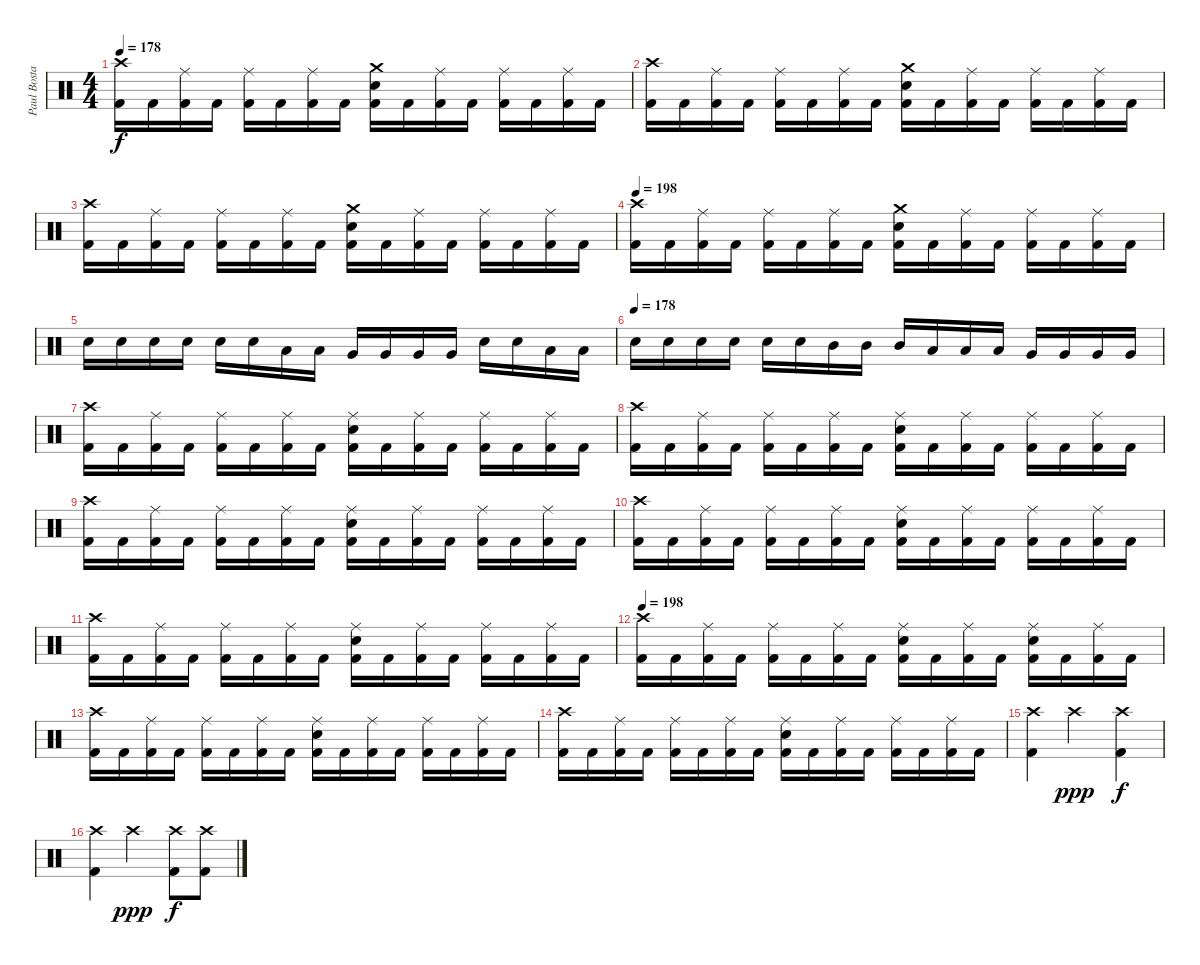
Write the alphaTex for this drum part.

\track ("Paul Bostaph" "Paul Bosta") {instrument percussion}
\staff {score}
\articulation defaults
\ts (4 4)
\tempo 178
\clef neutral
\ks c
("Crash high (hit)" "Kick (hit) 2").16{dy f} "Kick (hit) 2".16 ("Ride (middle)" "Kick (hit) 2").16 "Kick (hit) 2".16 ("Ride (middle)" "Kick (hit) 2").16 "Kick (hit) 2".16 ("Ride (middle)" "Kick (hit) 2").16 "Kick (hit) 2".16 ("Crash medium (hit)" "Electric Snare (hit)" "Kick (hit) 2").16 "Kick (hit) 2".16 ("Ride (middle)" "Kick (hit) 2").16 "Kick (hit) 2".16 ("Ride (middle)" "Kick (hit) 2").16 "Kick (hit) 2".16 ("Ride (middle)" "Kick (hit) 2").16 "Kick (hit) 2".16 |
("Crash high (hit)" "Kick (hit) 2").16 "Kick (hit) 2".16 ("Ride (middle)" "Kick (hit) 2").16 "Kick (hit) 2".16 ("Ride (middle)" "Kick (hit) 2").16 "Kick (hit) 2".16 ("Ride (middle)" "Kick (hit) 2").16 "Kick (hit) 2".16 ("Crash medium (hit)" "Electric Snare (hit)" "Kick (hit) 2").16 "Kick (hit) 2".16 ("Ride (middle)" "Kick (hit) 2").16 "Kick (hit) 2".16 ("Ride (middle)" "Kick (hit) 2").16 "Kick (hit) 2".16 ("Ride (middle)" "Kick (hit) 2").16 "Kick (hit) 2".16 |
("Crash high (hit)" "Kick (hit) 2").16 "Kick (hit) 2".16 ("Ride (middle)" "Kick (hit) 2").16 "Kick (hit) 2".16 ("Ride (middle)" "Kick (hit) 2").16 "Kick (hit) 2".16 ("Ride (middle)" "Kick (hit) 2").16 "Kick (hit) 2".16 ("Crash medium (hit)" "Electric Snare (hit)" "Kick (hit) 2").16 "Kick (hit) 2".16 ("Ride (middle)" "Kick (hit) 2").16 "Kick (hit) 2".16 ("Ride (middle)" "Kick (hit) 2").16 "Kick (hit) 2".16 ("Ride (middle)" "Kick (hit) 2").16 "Kick (hit) 2".16 |
\tempo 198
("Crash high (hit)" "Kick (hit) 2").16 "Kick (hit) 2".16 ("Ride (middle)" "Kick (hit) 2").16 "Kick (hit) 2".16 ("Ride (middle)" "Kick (hit) 2").16 "Kick (hit) 2".16 ("Ride (middle)" "Kick (hit) 2").16 "Kick (hit) 2".16 ("Crash medium (hit)" "Electric Snare (hit)" "Kick (hit) 2").16 "Kick (hit) 2".16 ("Ride (middle)" "Kick (hit) 2").16 "Kick (hit) 2".16 ("Ride (middle)" "Kick (hit) 2").16 "Kick (hit) 2".16 ("Ride (middle)" "Kick (hit) 2").16 "Kick (hit) 2".16 |
"Electric Snare (hit)".16 "Electric Snare (hit)".16 "Electric Snare (hit)".16 "Electric Snare (hit)".16 "Electric Snare (hit)".16 "Electric Snare (hit)".16 "Low Tom (hit)".16 "Low Tom (hit)".16 "Very Low Tom (hit)".16 "Very Low Tom (hit)".16 "Very Low Tom (hit)".16 "Very Low Tom (hit)".16 "Electric Snare (hit)".16 "Electric Snare (hit)".16 "Low Tom (hit)".16 "Low Tom (hit)".16 |
\tempo (178)
"Electric Snare (hit)".16 "Electric Snare (hit)".16 "Electric Snare (hit)".16 "Electric Snare (hit)".16 "Electric Snare (hit)".16 "Electric Snare (hit)".16 "Mid Tom (hit)".16 "Mid Tom (hit)".16 "Mid Tom (hit)".16 "Low Tom (hit)".16 "Low Tom (hit)".16 "Low Tom (hit)".16 "Very Low Tom (hit)".16 "Very Low Tom (hit)".16 "Very Low Tom (hit)".16 "Very Low Tom (hit)".16 |
("Crash high (hit)" "Kick (hit) 2").16 "Kick (hit) 2".16 ("Ride (middle)" "Kick (hit) 2").16 "Kick (hit) 2".16 ("Ride (middle)" "Kick (hit) 2").16 "Kick (hit) 2".16 ("Ride (middle)" "Kick (hit) 2").16 "Kick (hit) 2".16 ("Electric Snare (hit)" "Ride (middle)" "Kick (hit) 2").16 "Kick (hit) 2".16 ("Ride (middle)" "Kick (hit) 2").16 "Kick (hit) 2".16 ("Ride (middle)" "Kick (hit) 2").16 "Kick (hit) 2".16 ("Ride (middle)" "Kick (hit) 2").16 "Kick (hit) 2".16 |
("Crash high (hit)" "Kick (hit) 2").16 "Kick (hit) 2".16 ("Ride (middle)" "Kick (hit) 2").16 "Kick (hit) 2".16 ("Ride (middle)" "Kick (hit) 2").16 "Kick (hit) 2".16 ("Ride (middle)" "Kick (hit) 2").16 "Kick (hit) 2".16 ("Electric Snare (hit)" "Ride (middle)" "Kick (hit) 2").16 "Kick (hit) 2".16 ("Ride (middle)" "Kick (hit) 2").16 "Kick (hit) 2".16 ("Ride (middle)" "Kick (hit) 2").16 "Kick (hit) 2".16 ("Ride (middle)" "Kick (hit) 2").16 "Kick (hit) 2".16 |
("Crash high (hit)" "Kick (hit) 2").16 "Kick (hit) 2".16 ("Ride (middle)" "Kick (hit) 2").16 "Kick (hit) 2".16 ("Ride (middle)" "Kick (hit) 2").16 "Kick (hit) 2".16 ("Ride (middle)" "Kick (hit) 2").16 "Kick (hit) 2".16 ("Electric Snare (hit)" "Ride (middle)" "Kick (hit) 2").16 "Kick (hit) 2".16 ("Ride (middle)" "Kick (hit) 2").16 "Kick (hit) 2".16 ("Ride (middle)" "Kick (hit) 2").16 "Kick (hit) 2".16 ("Ride (middle)" "Kick (hit) 2").16 "Kick (hit) 2".16 |
("Crash high (hit)" "Kick (hit) 2").16 "Kick (hit) 2".16 ("Ride (middle)" "Kick (hit) 2").16 "Kick (hit) 2".16 ("Ride (middle)" "Kick (hit) 2").16 "Kick (hit) 2".16 ("Ride (middle)" "Kick (hit) 2").16 "Kick (hit) 2".16 ("Electric Snare (hit)" "Ride (middle)" "Kick (hit) 2").16 "Kick (hit) 2".16 ("Ride (middle)" "Kick (hit) 2").16 "Kick (hit) 2".16 ("Ride (middle)" "Kick (hit) 2").16 "Kick (hit) 2".16 ("Ride (middle)" "Kick (hit) 2").16 "Kick (hit) 2".16 |
("Crash high (hit)" "Kick (hit) 2").16 "Kick (hit) 2".16 ("Ride (middle)" "Kick (hit) 2").16 "Kick (hit) 2".16 ("Ride (middle)" "Kick (hit) 2").16 "Kick (hit) 2".16 ("Ride (middle)" "Kick (hit) 2").16 "Kick (hit) 2".16 ("Electric Snare (hit)" "Ride (middle)" "Kick (hit) 2").16 "Kick (hit) 2".16 ("Ride (middle)" "Kick (hit) 2").16 "Kick (hit) 2".16 ("Ride (middle)" "Kick (hit) 2").16 "Kick (hit) 2".16 ("Ride (middle)" "Kick (hit) 2").16 "Kick (hit) 2".16 |
\tempo 198
("Crash high (hit)" "Kick (hit) 2").16 "Kick (hit) 2".16 ("Ride (middle)" "Kick (hit) 2").16 "Kick (hit) 2".16 ("Ride (middle)" "Kick (hit) 2").16 "Kick (hit) 2".16 ("Ride (middle)" "Kick (hit) 2").16 "Kick (hit) 2".16 ("Electric Snare (hit)" "Ride (middle)" "Kick (hit) 2").16 "Kick (hit) 2".16 ("Ride (middle)" "Kick (hit) 2").16 "Kick (hit) 2".16 ("Electric Snare (hit)" "Ride (middle)" "Kick (hit) 2").16 "Kick (hit) 2".16 ("Ride (middle)" "Kick (hit) 2").16 "Kick (hit) 2".16 |
("Crash high (hit)" "Kick (hit) 2").16 "Kick (hit) 2".16 ("Ride (middle)" "Kick (hit) 2").16 "Kick (hit) 2".16 ("Ride (middle)" "Kick (hit) 2").16 "Kick (hit) 2".16 ("Ride (middle)" "Kick (hit) 2").16 "Kick (hit) 2".16 ("Electric Snare (hit)" "Ride (middle)" "Kick (hit) 2").16 "Kick (hit) 2".16 ("Ride (middle)" "Kick (hit) 2").16 "Kick (hit) 2".16 ("Ride (middle)" "Kick (hit) 2").16 "Kick (hit) 2".16 ("Ride (middle)" "Kick (hit) 2").16 "Kick (hit) 2".16 |
("Crash high (hit)" "Kick (hit) 2").16 "Kick (hit) 2".16 ("Ride (middle)" "Kick (hit) 2").16 "Kick (hit) 2".16 ("Ride (middle)" "Kick (hit) 2").16 "Kick (hit) 2".16 ("Ride (middle)" "Kick (hit) 2").16 "Kick (hit) 2".16 ("Electric Snare (hit)" "Ride (middle)" "Kick (hit) 2").16 "Kick (hit) 2".16 ("Ride (middle)" "Kick (hit) 2").16 "Kick (hit) 2".16 ("Ride (middle)" "Kick (hit) 2").16 "Kick (hit) 2".16 ("Ride (middle)" "Kick (hit) 2").16 "Kick (hit) 2".16 |
("Crash high (hit)" "Kick (hit) 2").4 "Crash high (hit)".2{dy ppp} ("Crash high (hit)" "Kick (hit) 2").4{dy f} |
("Crash high (hit)" "Kick (hit) 2").4 "Crash high (hit)".2{dy ppp} ("Crash high (hit)" "Kick (hit) 2").8{dy f} ("Crash high (hit)" "Kick (hit) 2").8
